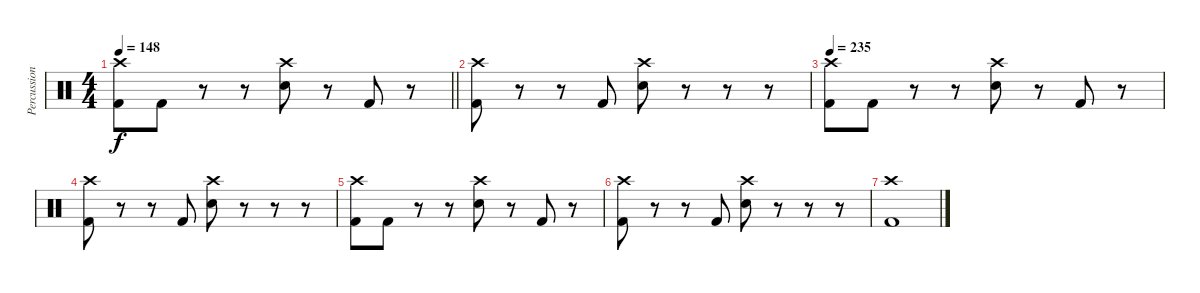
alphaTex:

\track ("Percussion" "Percussion") {instrument percussion}
\staff {score}
\articulation defaults
\ts (4 4)
\tempo 148
\clef neutral
\barLineRight lightlight
\ks c
("Crash high (hit)" "Kick (hit) 2").8{dy f} "Kick (hit) 2".8 r.8 r.8 ("Crash high (hit)" "Snare (hit) 2").8 r.8 "Kick (hit) 2".8 r.8 |
("Crash high (hit)" "Kick (hit) 2").8 r.8 r.8 "Kick (hit) 2".8 ("Crash high (hit)" "Snare (hit) 2").8 r.8 r.8 r.8 |
\tempo 235
("Crash high (hit)" "Kick (hit) 2").8 "Kick (hit) 2".8 r.8 r.8 ("Crash high (hit)" "Snare (hit) 2").8 r.8 "Kick (hit) 2".8 r.8 |
("Crash high (hit)" "Kick (hit) 2").8 r.8 r.8 "Kick (hit) 2".8 ("Crash high (hit)" "Snare (hit) 2").8 r.8 r.8 r.8 |
("Crash high (hit)" "Kick (hit) 2").8 "Kick (hit) 2".8 r.8 r.8 ("Crash high (hit)" "Snare (hit) 2").8 r.8 "Kick (hit) 2".8 r.8 |
("Crash high (hit)" "Kick (hit) 2").8 r.8 r.8 "Kick (hit) 2".8 ("Crash high (hit)" "Snare (hit) 2").8 r.8 r.8 r.8 |
("Crash high (hit)" "Kick (hit) 2").1
